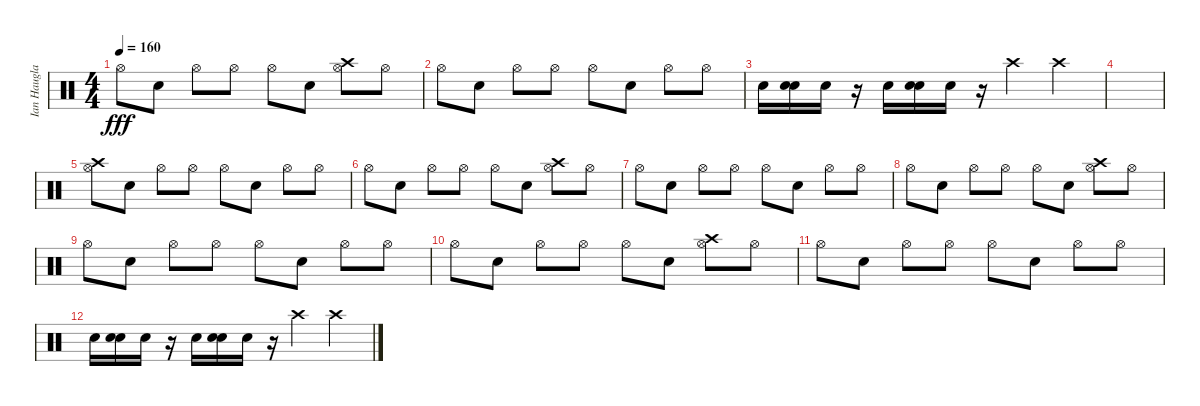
\track ("Ian Haugland" "Ian Haugla") {instrument percussion}
\staff {score}
\articulation defaults
\ts (4 4)
\tempo 160
\clef neutral
\ks c "Hi-Hat (open)".8{dy fff} "Electric Snare (hit)".8 "Hi-Hat (open)".8 "Hi-Hat (open)".8 "Hi-Hat (open)".8 "Electric Snare (hit)".8
("Hi-Hat (open)" "Crash high (hit)").8 "Hi-Hat (open)".8 |
"Hi-Hat (open)".8 "Electric Snare (hit)".8 "Hi-Hat (open)".8 "Hi-Hat (open)".8 "Hi-Hat (open)".8 "Snare (hit) 2".8 "Hi-Hat (open)".8 "Hi-Hat (open)".8 |
"Snare (hit) 2".16 ("Electric Snare (hit)" "Snare (hit) 2").16 "Snare (hit) 2".16 r.16 "Snare (hit) 2".16 ("Electric Snare (hit)" "Snare (hit) 2").16 "Snare (hit) 2".16 r.16 "Crash high (hit)".4 "Crash high (hit)".4 |
|
("Hi-Hat (open)" "Crash high (hit)").8 "Electric Snare (hit)".8 "Hi-Hat (open)".8 "Hi-Hat (open)".8 "Hi-Hat (open)".8 "Snare (hit) 2".8 "Hi-Hat (open)".8 "Hi-Hat (open)".8 |
"Hi-Hat (open)".8 "Electric Snare (hit)".8 "Hi-Hat (open)".8 "Hi-Hat (open)".8 "Hi-Hat (open)".8 "Electric Snare (hit)".8 ("Hi-Hat (open)" "Crash high (hit)").8 "Hi-Hat (open)".8 |
"Hi-Hat (open)".8 "Electric Snare (hit)".8 "Hi-Hat (open)".8 "Hi-Hat (open)".8 "Hi-Hat (open)".8 "Snare (hit) 2".8 "Hi-Hat (open)".8 "Hi-Hat (open)".8 |
"Hi-Hat (open)".8 "Electric Snare (hit)".8 "Hi-Hat (open)".8 "Hi-Hat (open)".8 "Hi-Hat (open)".8 "Electric Snare (hit)".8 ("Hi-Hat (open)" "Crash high (hit)").8 "Hi-Hat (open)".8 |
"Hi-Hat (open)".8 "Electric Snare (hit)".8 "Hi-Hat (open)".8 "Hi-Hat (open)".8 "Hi-Hat (open)".8 "Snare (hit) 2".8 "Hi-Hat (open)".8 "Hi-Hat (open)".8 |
"Hi-Hat (open)".8 "Electric Snare (hit)".8 "Hi-Hat (open)".8 "Hi-Hat (open)".8 "Hi-Hat (open)".8 "Electric Snare (hit)".8 ("Hi-Hat (open)" "Crash high (hit)").8 "Hi-Hat (open)".8 |
"Hi-Hat (open)".8 "Electric Snare (hit)".8 "Hi-Hat (open)".8 "Hi-Hat (open)".8 "Hi-Hat (open)".8 "Snare (hit) 2".8 "Hi-Hat (open)".8 "Hi-Hat (open)".8 |
"Snare (hit) 2".16 ("Electric Snare (hit)" "Snare (hit) 2").16 "Snare (hit) 2".16 r.16 "Snare (hit) 2".16 ("Electric Snare (hit)" "Snare (hit) 2").16 "Snare (hit) 2".16 r.16 "Crash high (hit)".4 "Crash high (hit)".4
